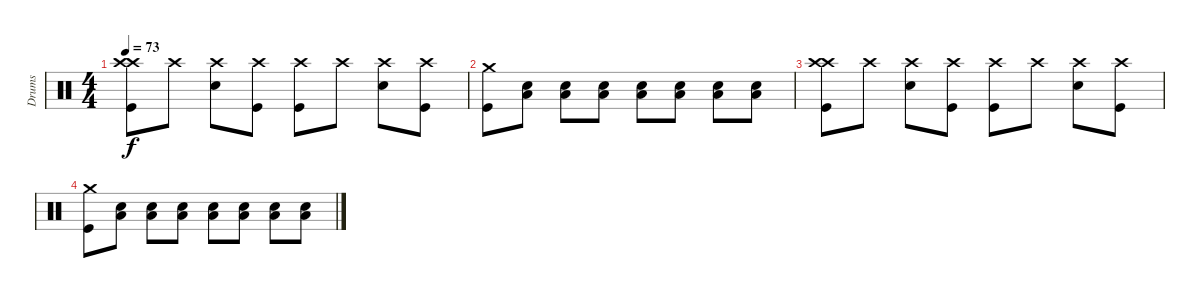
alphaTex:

\track ("Drums" "Drums") {instrument percussion}
\staff {score}
\articulation defaults
\ts (4 4)
\tempo 73
\clef neutral
\ks c
("Crash high (hit)" "Crash high (hit)" "Kick (hit)").8{dy f} "Crash high (hit)".8 ("Crash high (hit)" "Electric Snare (hit)").8 ("Crash high (hit)" "Kick (hit)").8 ("Crash high (hit)" "Kick (hit)").8 "Crash high (hit)".8 ("Crash high (hit)" "Electric Snare (hit)").8 ("Crash high (hit)" "Kick (hit)").8 |
("Crash medium (hit)" "Kick (hit)").8 ("Low Floor Tom (hit)" "Electric Snare (hit)").8 ("Low Floor Tom (hit)" "Electric Snare (hit)").8 ("Low Floor Tom (hit)" "Electric Snare (hit)").8 ("Low Floor Tom (hit)" "Electric Snare (hit)").8 ("Low Floor Tom (hit)" "Electric Snare (hit)").8 ("Low Floor Tom (hit)" "Electric Snare (hit)").8 ("Low Floor Tom (hit)" "Electric Snare (hit)").8 |
("Crash high (hit)" "Crash high (hit)" "Kick (hit)").8 "Crash high (hit)".8 ("Crash high (hit)" "Electric Snare (hit)").8 ("Crash high (hit)" "Kick (hit)").8 ("Crash high (hit)" "Kick (hit)").8 "Crash high (hit)".8 ("Crash high (hit)" "Electric Snare (hit)").8 ("Crash high (hit)" "Kick (hit)").8 |
("Crash medium (hit)" "Kick (hit)").8 ("Low Floor Tom (hit)" "Electric Snare (hit)").8 ("Low Floor Tom (hit)" "Electric Snare (hit)").8 ("Low Floor Tom (hit)" "Electric Snare (hit)").8 ("Low Floor Tom (hit)" "Electric Snare (hit)").8 ("Low Floor Tom (hit)" "Electric Snare (hit)").8 ("Low Floor Tom (hit)" "Electric Snare (hit)").8 ("Low Floor Tom (hit)" "Electric Snare (hit)").8
